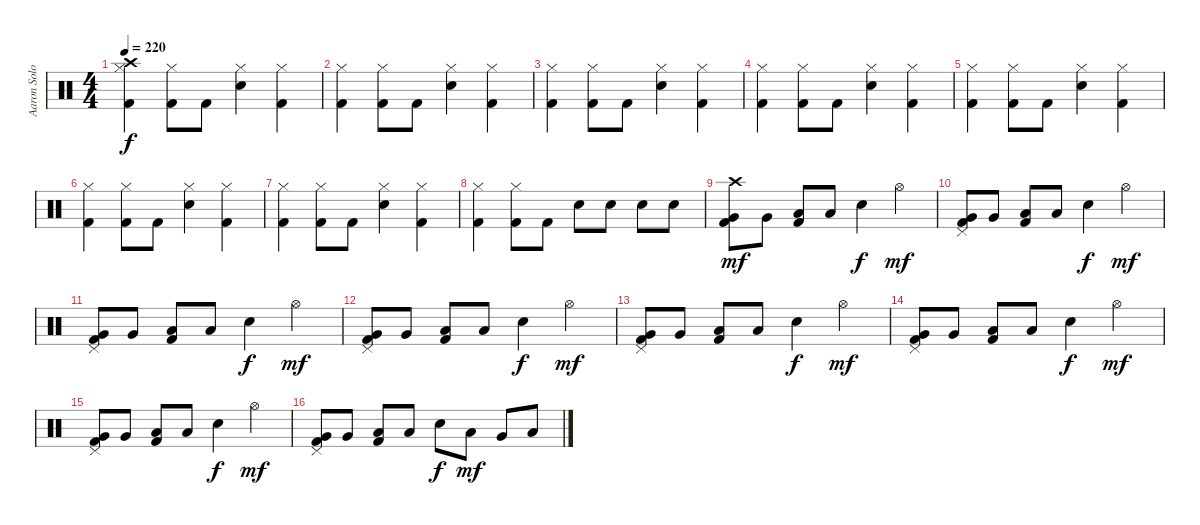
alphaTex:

\track ("Aaron Solowoniuk" "Aaron Solo") {instrument percussion}
\staff {score}
\articulation defaults
\ts (4 4)
\tempo 220
\clef neutral
\ks c
("Crash high (hit)" "Hi-Hat (closed)" "Kick (hit) 2").4{dy f} ("Hi-Hat (closed)" "Kick (hit) 2").8 "Kick (hit) 2".8 ("Hi-Hat (closed)" "Snare (hit) 2").4 ("Hi-Hat (closed)" "Kick (hit) 2").4 |
("Hi-Hat (closed)" "Kick (hit) 2").4 ("Hi-Hat (closed)" "Kick (hit) 2").8 "Kick (hit) 2".8 ("Hi-Hat (closed)" "Snare (hit) 2").4 ("Hi-Hat (closed)" "Kick (hit) 2").4 |
("Hi-Hat (closed)" "Kick (hit) 2").4 ("Hi-Hat (closed)" "Kick (hit) 2").8 "Kick (hit) 2".8 ("Hi-Hat (closed)" "Snare (hit) 2").4 ("Hi-Hat (closed)" "Kick (hit) 2").4 |
("Hi-Hat (closed)" "Kick (hit) 2").4 ("Hi-Hat (closed)" "Kick (hit) 2").8 "Kick (hit) 2".8 ("Hi-Hat (closed)" "Snare (hit) 2").4 ("Hi-Hat (closed)" "Kick (hit) 2").4 |
("Hi-Hat (closed)" "Kick (hit) 2").4 ("Hi-Hat (closed)" "Kick (hit) 2").8 "Kick (hit) 2".8 ("Hi-Hat (closed)" "Snare (hit) 2").4 ("Hi-Hat (closed)" "Kick (hit) 2").4 |
("Hi-Hat (closed)" "Kick (hit) 2").4 ("Hi-Hat (closed)" "Kick (hit) 2").8 "Kick (hit) 2".8 ("Hi-Hat (closed)" "Snare (hit) 2").4 ("Hi-Hat (closed)" "Kick (hit) 2").4 |
("Hi-Hat (closed)" "Kick (hit) 2").4 ("Hi-Hat (closed)" "Kick (hit) 2").8 "Kick (hit) 2".8 ("Hi-Hat (closed)" "Snare (hit) 2").4 ("Hi-Hat (closed)" "Kick (hit) 2").4 |
("Hi-Hat (closed)" "Kick (hit) 2").4 ("Hi-Hat (closed)" "Kick (hit) 2").8 "Kick (hit) 2".8 "Snare (hit) 2".8 "Snare (hit) 2".8 "Snare (hit) 2".8 "Snare (hit) 2".8 |
("Crash high (hit)" "Very Low Tom (hit)" "Kick (hit) 2").8{dy mf} "Very Low Tom (hit)".8 ("Low Floor Tom (hit)" "Kick (hit) 2").8 "Low Floor Tom (hit)".8 "Snare (hit) 2".4{dy f} "Hi-Hat (open)".4{dy mf} |
("Pedal Hi-Hat (hit)" "Very Low Tom (hit)" "Kick (hit) 2").8 "Very Low Tom (hit)".8 ("Low Floor Tom (hit)" "Kick (hit) 2").8 "Low Floor Tom (hit)".8 "Snare (hit) 2".4{dy f} "Hi-Hat (open)".4{dy mf} |
("Pedal Hi-Hat (hit)" "Very Low Tom (hit)" "Kick (hit) 2").8 "Very Low Tom (hit)".8 ("Low Floor Tom (hit)" "Kick (hit) 2").8 "Low Floor Tom (hit)".8 "Snare (hit) 2".4{dy f} "Hi-Hat (open)".4{dy mf} |
("Pedal Hi-Hat (hit)" "Very Low Tom (hit)" "Kick (hit) 2").8 "Very Low Tom (hit)".8 ("Low Floor Tom (hit)" "Kick (hit) 2").8 "Low Floor Tom (hit)".8 "Snare (hit) 2".4{dy f} "Hi-Hat (open)".4{dy mf} |
("Pedal Hi-Hat (hit)" "Very Low Tom (hit)" "Kick (hit) 2").8 "Very Low Tom (hit)".8 ("Low Floor Tom (hit)" "Kick (hit) 2").8 "Low Floor Tom (hit)".8 "Snare (hit) 2".4{dy f} "Hi-Hat (open)".4{dy mf} |
("Pedal Hi-Hat (hit)" "Very Low Tom (hit)" "Kick (hit) 2").8 "Very Low Tom (hit)".8 ("Low Floor Tom (hit)" "Kick (hit) 2").8 "Low Floor Tom (hit)".8 "Snare (hit) 2".4{dy f} "Hi-Hat (open)".4{dy mf} |
("Pedal Hi-Hat (hit)" "Very Low Tom (hit)" "Kick (hit) 2").8 "Very Low Tom (hit)".8 ("Low Floor Tom (hit)" "Kick (hit) 2").8 "Low Floor Tom (hit)".8 "Snare (hit) 2".4{dy f} "Hi-Hat (open)".4{dy mf} |
("Pedal Hi-Hat (hit)" "Very Low Tom (hit)" "Kick (hit) 2").8 "Very Low Tom (hit)".8 ("Low Floor Tom (hit)" "Kick (hit) 2").8 "Low Floor Tom (hit)".8 "Snare (hit) 2".8{dy f} "Low Tom (hit)".8{dy mf} "Very Low Tom (hit)".8 "Low Floor Tom (hit)".8
